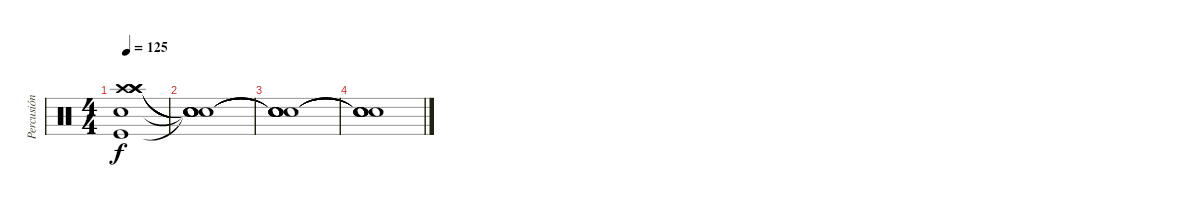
\track ("Percusión" "Percusión") {instrument percussion}
\staff {score}
\articulation defaults
\ts (4 4)
\tempo 125
\clef neutral
\ks c
("Kick (hit)" "Crash high (hit)" "Crash high (hit)" "Crash high (hit)" "Crash high (hit)" "Snare (hit) 2").1{dy f volume 0} |
("Snare (hit)"{t} "Snare (hit)"{t} "Snare (hit)"{t} "Snare (hit)"{t} "Snare (hit)"{t} "Snare (hit)"{t}).1 |
("Snare (hit)"{t} "Snare (hit)"{t} "Snare (hit)"{t} "Snare (hit)"{t} "Snare (hit)"{t} "Snare (hit)"{t}).1 |
("Snare (hit)"{t} "Snare (hit)"{t} "Snare (hit)"{t} "Snare (hit)"{t} "Snare (hit)"{t} "Snare (hit)"{t}).1
